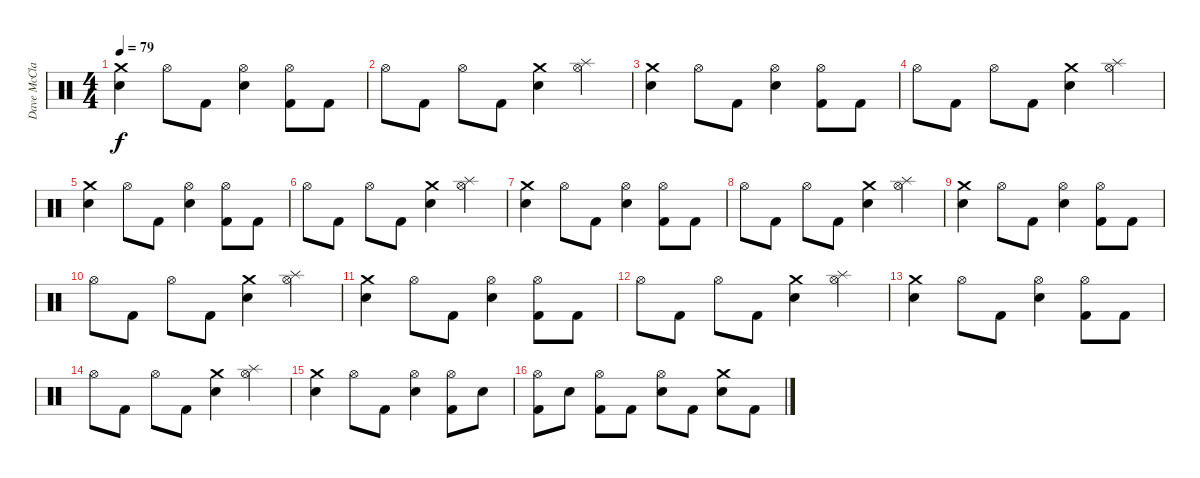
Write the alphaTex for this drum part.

\track ("Dave McClain" "Dave McCla") {instrument percussion}
\staff {score}
\articulation defaults
\ts (4 4)
\tempo 79
\clef neutral
\ks c
("Crash medium (hit)" "Snare (hit) 2").4{dy f volume 13} "Hi-Hat (open)".8 "Kick (hit) 2".8 ("Hi-Hat (open)" "Snare (hit) 2").4 ("Hi-Hat (open)" "Kick (hit) 2").8 "Kick (hit) 2".8 |
"Hi-Hat (open)".8 "Kick (hit) 2".8 "Hi-Hat (open)".8 "Kick (hit) 2".8 ("Crash medium (hit)" "Snare (hit) 2").4 ("Splash (hit)" "Hi-Hat (open)").4 |
("Crash medium (hit)" "Snare (hit) 2").4 "Hi-Hat (open)".8 "Kick (hit) 2".8 ("Hi-Hat (open)" "Snare (hit) 2").4 ("Hi-Hat (open)" "Kick (hit) 2").8 "Kick (hit) 2".8 |
"Hi-Hat (open)".8 "Kick (hit) 2".8 "Hi-Hat (open)".8 "Kick (hit) 2".8 ("Crash medium (hit)" "Snare (hit) 2").4 ("Splash (hit)" "Hi-Hat (open)").4 |
("Crash medium (hit)" "Snare (hit) 2").4 "Hi-Hat (open)".8 "Kick (hit) 2".8 ("Hi-Hat (open)" "Snare (hit) 2").4 ("Hi-Hat (open)" "Kick (hit) 2").8 "Kick (hit) 2".8 |
"Hi-Hat (open)".8 "Kick (hit) 2".8 "Hi-Hat (open)".8 "Kick (hit) 2".8 ("Crash medium (hit)" "Snare (hit) 2").4 ("Splash (hit)" "Hi-Hat (open)").4 |
("Crash medium (hit)" "Snare (hit) 2").4 "Hi-Hat (open)".8 "Kick (hit) 2".8 ("Hi-Hat (open)" "Snare (hit) 2").4 ("Hi-Hat (open)" "Kick (hit) 2").8 "Kick (hit) 2".8 |
"Hi-Hat (open)".8 "Kick (hit) 2".8 "Hi-Hat (open)".8 "Kick (hit) 2".8 ("Crash medium (hit)" "Snare (hit) 2").4 ("Splash (hit)" "Hi-Hat (open)").4 |
("Crash medium (hit)" "Snare (hit) 2").4 "Hi-Hat (open)".8 "Kick (hit) 2".8 ("Hi-Hat (open)" "Snare (hit) 2").4 ("Hi-Hat (open)" "Kick (hit) 2").8 "Kick (hit) 2".8 |
"Hi-Hat (open)".8 "Kick (hit) 2".8 "Hi-Hat (open)".8 "Kick (hit) 2".8 ("Crash medium (hit)" "Snare (hit) 2").4 ("Splash (hit)" "Hi-Hat (open)").4 |
("Crash medium (hit)" "Snare (hit) 2").4 "Hi-Hat (open)".8 "Kick (hit) 2".8 ("Hi-Hat (open)" "Snare (hit) 2").4 ("Hi-Hat (open)" "Kick (hit) 2").8 "Kick (hit) 2".8 |
"Hi-Hat (open)".8 "Kick (hit) 2".8 "Hi-Hat (open)".8 "Kick (hit) 2".8 ("Crash medium (hit)" "Snare (hit) 2").4 ("Splash (hit)" "Hi-Hat (open)").4 |
("Crash medium (hit)" "Snare (hit) 2").4 "Hi-Hat (open)".8 "Kick (hit) 2".8 ("Hi-Hat (open)" "Snare (hit) 2").4 ("Hi-Hat (open)" "Kick (hit) 2").8 "Kick (hit) 2".8 |
"Hi-Hat (open)".8 "Kick (hit) 2".8 "Hi-Hat (open)".8 "Kick (hit) 2".8 ("Crash medium (hit)" "Snare (hit) 2").4 ("Splash (hit)" "Hi-Hat (open)").4 |
("Crash medium (hit)" "Snare (hit) 2").4 "Hi-Hat (open)".8 "Kick (hit) 2".8 ("Hi-Hat (open)" "Snare (hit) 2").4 ("Hi-Hat (open)" "Kick (hit) 2").8 "Snare (hit) 2".8 |
("Hi-Hat (open)" "Kick (hit) 2").8 "Snare (hit) 2".8 ("Hi-Hat (open)" "Kick (hit) 2").8 "Kick (hit) 2".8 ("Hi-Hat (open)" "Snare (hit) 2").8 "Kick (hit) 2".8 ("Crash medium (hit)" "Snare (hit) 2").8 "Kick (hit) 2".8
